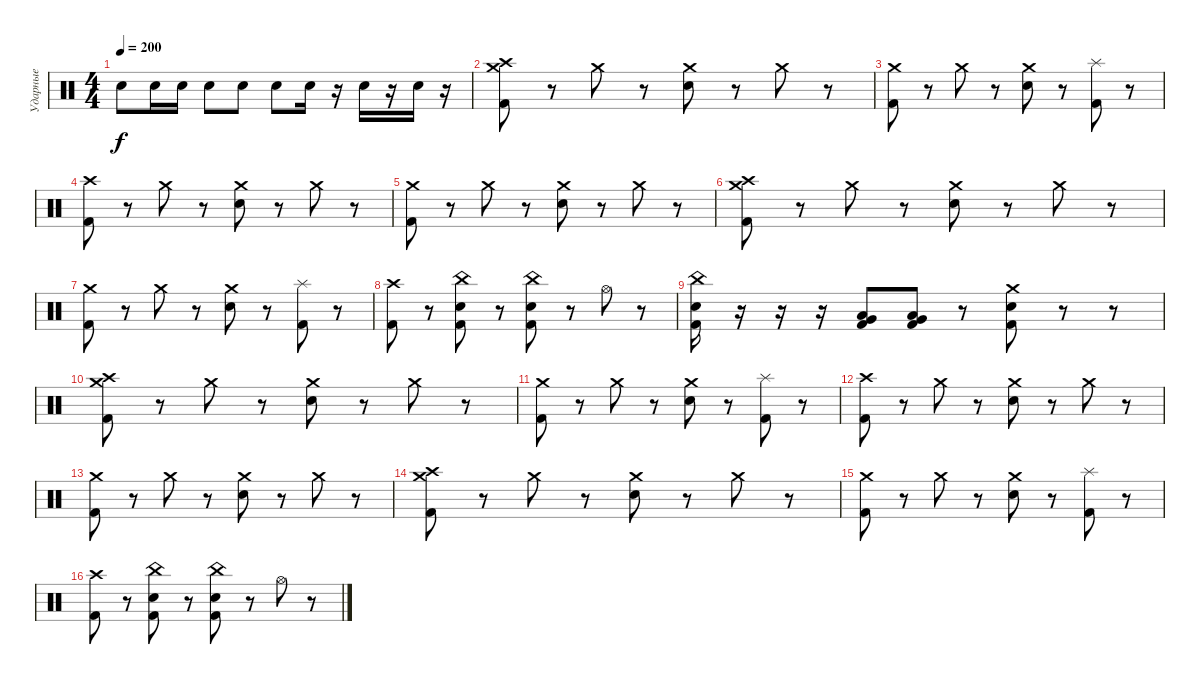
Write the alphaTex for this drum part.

\track ("Ударные" "Ударные") {instrument percussion}
\staff {score}
\articulation defaults
\ts (4 4)
\tempo 200
\clef neutral
\ks c "Electric Snare (hit)".8{dy f} "Electric Snare (hit)".16 "Electric Snare (hit)".16 "Electric Snare (hit)".8 "Electric Snare (hit)".8 "Electric Snare (hit)".8 "Electric Snare (hit)".16
r.16 "Electric Snare (hit)".16 r.16 "Electric Snare (hit)".16 r.16 |
("Kick (hit) 2" "Crash high (hit)" "Crash medium (hit)").8 r.8 "Crash medium (hit)".8 r.8 ("Electric Snare (hit)" "Crash medium (hit)").8 r.8 "Crash medium (hit)".8 r.8 |
("Kick (hit) 2" "Crash medium (hit)").8 r.8 "Crash medium (hit)".8 r.8 ("Electric Snare (hit)" "Crash medium (hit)").8 r.8 ("Kick (hit) 2" "Splash (hit)").8 r.8 |
("Kick (hit) 2" "Crash high (hit)").8 r.8 "Crash medium (hit)".8 r.8 ("Electric Snare (hit)" "Crash medium (hit)").8 r.8 "Crash medium (hit)".8 r.8 |
("Kick (hit) 2" "Crash medium (hit)").8 r.8 "Crash medium (hit)".8 r.8 ("Electric Snare (hit)" "Crash medium (hit)").8 r.8 "Crash medium (hit)".8 r.8 |
("Kick (hit) 2" "Crash high (hit)" "Crash medium (hit)").8 r.8 "Crash medium (hit)".8 r.8 ("Electric Snare (hit)" "Crash medium (hit)").8 r.8 "Crash medium (hit)".8 r.8 |
("Kick (hit) 2" "Crash medium (hit)").8 r.8 "Crash medium (hit)".8 r.8 ("Electric Snare (hit)" "Crash medium (hit)").8 r.8 ("Kick (hit) 2" "Splash (hit)").8 r.8 |
("Kick (hit) 2" "Crash high (hit)").8 r.8 ("Kick (hit) 2" "Electric Snare (hit)" "China (hit)").8 r.8 ("Kick (hit) 2" "Electric Snare (hit)" "China (hit)").8 r.8 "Hi-Hat (open)".8 r.8 |
("Kick (hit) 2" "Electric Snare (hit)" "China (hit)").16 r.16 r.16 r.16 ("Kick (hit) 2" "Low Floor Tom (hit)" "Very Low Tom (hit)").8 ("Kick (hit) 2" "Low Floor Tom (hit)" "Very Low Tom (hit)").8 r.8 ("Kick (hit) 2" "Electric Snare (hit)" "Crash medium (hit)").8 r.8 r.8 |
("Kick (hit) 2" "Crash high (hit)" "Crash medium (hit)").8 r.8 "Crash medium (hit)".8 r.8 ("Electric Snare (hit)" "Crash medium (hit)").8 r.8 "Crash medium (hit)".8 r.8 |
("Kick (hit) 2" "Crash medium (hit)").8 r.8 "Crash medium (hit)".8 r.8 ("Electric Snare (hit)" "Crash medium (hit)").8 r.8 ("Kick (hit) 2" "Splash (hit)").8 r.8 |
("Kick (hit) 2" "Crash high (hit)").8 r.8 "Crash medium (hit)".8 r.8 ("Electric Snare (hit)" "Crash medium (hit)").8 r.8 "Crash medium (hit)".8 r.8 |
("Kick (hit) 2" "Crash medium (hit)").8 r.8 "Crash medium (hit)".8 r.8 ("Electric Snare (hit)" "Crash medium (hit)").8 r.8 "Crash medium (hit)".8 r.8 |
("Kick (hit) 2" "Crash high (hit)" "Crash medium (hit)").8 r.8 "Crash medium (hit)".8 r.8 ("Electric Snare (hit)" "Crash medium (hit)").8 r.8 "Crash medium (hit)".8 r.8 |
("Kick (hit) 2" "Crash medium (hit)").8 r.8 "Crash medium (hit)".8 r.8 ("Electric Snare (hit)" "Crash medium (hit)").8 r.8 ("Kick (hit) 2" "Splash (hit)").8 r.8 |
("Kick (hit) 2" "Crash high (hit)").8 r.8 ("Kick (hit) 2" "Electric Snare (hit)" "China (hit)").8 r.8 ("Kick (hit) 2" "Electric Snare (hit)" "China (hit)").8 r.8 "Hi-Hat (open)".8 r.8
